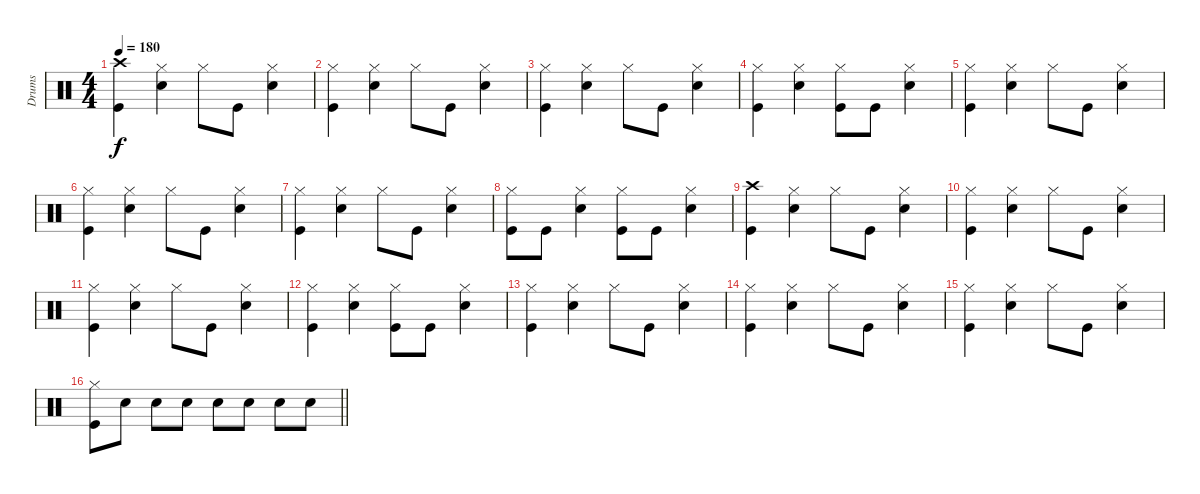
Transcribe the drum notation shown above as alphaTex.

\track ("Drums" "Drums") {instrument percussion}
\staff {score}
\articulation defaults
\ts (4 4)
\tempo 180
\clef neutral
\ks c
("Crash high (hit)" "Kick (hit)").4{dy f} ("Hi-Hat (closed)" "Snare (hit) 2").4 "Hi-Hat (closed)".8 "Kick (hit)".8 ("Hi-Hat (closed)" "Snare (hit) 2").4 |
("Hi-Hat (closed)" "Kick (hit)").4 ("Hi-Hat (closed)" "Snare (hit) 2").4 "Hi-Hat (closed)".8 "Kick (hit)".8 ("Hi-Hat (closed)" "Snare (hit) 2").4 |
("Hi-Hat (closed)" "Kick (hit)").4 ("Hi-Hat (closed)" "Snare (hit) 2").4 "Hi-Hat (closed)".8 "Kick (hit)".8 ("Hi-Hat (closed)" "Snare (hit) 2").4 |
("Hi-Hat (closed)" "Kick (hit)").4 ("Hi-Hat (closed)" "Snare (hit) 2").4 ("Hi-Hat (closed)" "Kick (hit)").8 "Kick (hit)".8 ("Hi-Hat (closed)" "Snare (hit) 2").4 |
("Hi-Hat (closed)" "Kick (hit)").4 ("Hi-Hat (closed)" "Snare (hit) 2").4 "Hi-Hat (closed)".8 "Kick (hit)".8 ("Hi-Hat (closed)" "Snare (hit) 2").4 |
("Hi-Hat (closed)" "Kick (hit)").4 ("Hi-Hat (closed)" "Snare (hit) 2").4 "Hi-Hat (closed)".8 "Kick (hit)".8 ("Hi-Hat (closed)" "Snare (hit) 2").4 |
("Hi-Hat (closed)" "Kick (hit)").4 ("Hi-Hat (closed)" "Snare (hit) 2").4 "Hi-Hat (closed)".8 "Kick (hit)".8 ("Hi-Hat (closed)" "Snare (hit) 2").4 |
("Hi-Hat (closed)" "Kick (hit)").8 "Kick (hit)".8 ("Hi-Hat (closed)" "Snare (hit) 2").4 ("Hi-Hat (closed)" "Kick (hit)").8 "Kick (hit)".8 ("Hi-Hat (closed)" "Snare (hit) 2").4 |
("Crash high (hit)" "Kick (hit)").4 ("Hi-Hat (closed)" "Snare (hit) 2").4 "Hi-Hat (closed)".8 "Kick (hit)".8 ("Hi-Hat (closed)" "Snare (hit) 2").4 |
("Hi-Hat (closed)" "Kick (hit)").4 ("Hi-Hat (closed)" "Snare (hit) 2").4 "Hi-Hat (closed)".8 "Kick (hit)".8 ("Hi-Hat (closed)" "Snare (hit) 2").4 |
("Hi-Hat (closed)" "Kick (hit)").4 ("Hi-Hat (closed)" "Snare (hit) 2").4 "Hi-Hat (closed)".8 "Kick (hit)".8 ("Hi-Hat (closed)" "Snare (hit) 2").4 |
("Hi-Hat (closed)" "Kick (hit)").4 ("Hi-Hat (closed)" "Snare (hit) 2").4 ("Hi-Hat (closed)" "Kick (hit)").8 "Kick (hit)".8 ("Hi-Hat (closed)" "Snare (hit) 2").4 |
("Hi-Hat (closed)" "Kick (hit)").4 ("Hi-Hat (closed)" "Snare (hit) 2").4 "Hi-Hat (closed)".8 "Kick (hit)".8 ("Hi-Hat (closed)" "Snare (hit) 2").4 |
("Hi-Hat (closed)" "Kick (hit)").4 ("Hi-Hat (closed)" "Snare (hit) 2").4 "Hi-Hat (closed)".8 "Kick (hit)".8 ("Hi-Hat (closed)" "Snare (hit) 2").4 |
("Hi-Hat (closed)" "Kick (hit)").4 ("Hi-Hat (closed)" "Snare (hit) 2").4 "Hi-Hat (closed)".8 "Kick (hit)".8 ("Hi-Hat (closed)" "Snare (hit) 2").4 |
\barLineRight lightlight
("Hi-Hat (closed)" "Kick (hit)").8 "Snare (hit) 2".8 "Snare (hit) 2".8 "Snare (hit) 2".8 "Snare (hit) 2".8 "Snare (hit) 2".8 "Snare (hit) 2".8 "Snare (hit) 2".8
